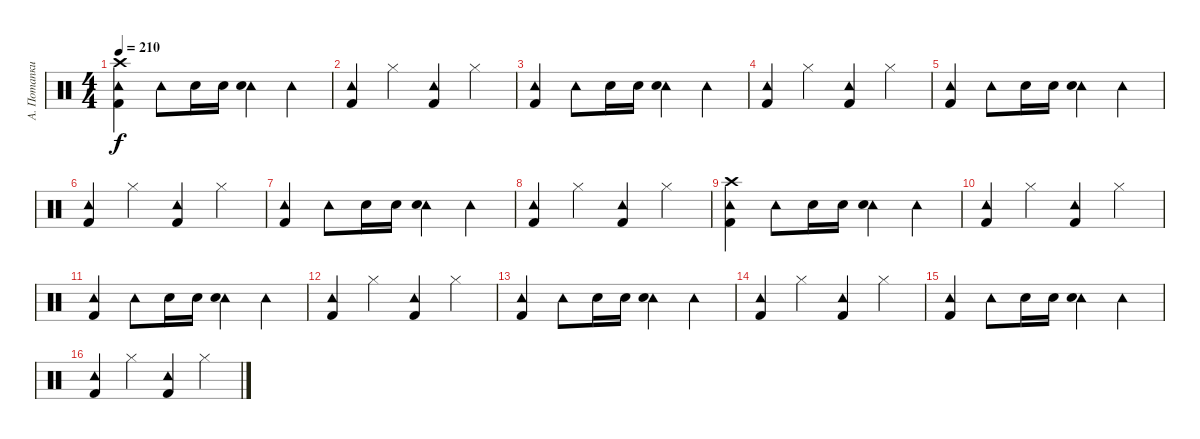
\track ("А. Потапкин" "А. Потапки") {instrument percussion}
\staff {score}
\articulation defaults
\ts (4 4)
\tempo 210
\clef neutral
\ks c
("Crash high (hit)" "Tambourine (hit)" "Kick (hit) 2").4{dy f} "Tambourine (hit)".8 "Electric Snare (hit)".16 "Electric Snare (hit)".16 ("Tambourine (hit)" "Electric Snare (hit)").4 "Tambourine (hit)".4 |
("Tambourine (hit)" "Kick (hit) 2").4 "Hi-Hat (closed)".4 ("Tambourine (hit)" "Kick (hit) 2").4 "Hi-Hat (closed)".4 |
("Tambourine (hit)" "Kick (hit) 2").4 "Tambourine (hit)".8 "Electric Snare (hit)".16 "Electric Snare (hit)".16 ("Tambourine (hit)" "Electric Snare (hit)").4 "Tambourine (hit)".4 |
("Tambourine (hit)" "Kick (hit) 2").4 "Hi-Hat (closed)".4 ("Tambourine (hit)" "Kick (hit) 2").4 "Hi-Hat (closed)".4 |
("Tambourine (hit)" "Kick (hit) 2").4 "Tambourine (hit)".8 "Electric Snare (hit)".16 "Electric Snare (hit)".16 ("Tambourine (hit)" "Electric Snare (hit)").4 "Tambourine (hit)".4 |
("Tambourine (hit)" "Kick (hit) 2").4 "Hi-Hat (closed)".4 ("Tambourine (hit)" "Kick (hit) 2").4 "Hi-Hat (closed)".4 |
("Tambourine (hit)" "Kick (hit) 2").4 "Tambourine (hit)".8 "Electric Snare (hit)".16 "Electric Snare (hit)".16 ("Tambourine (hit)" "Electric Snare (hit)").4 "Tambourine (hit)".4 |
("Tambourine (hit)" "Kick (hit) 2").4 "Hi-Hat (closed)".4 ("Tambourine (hit)" "Kick (hit) 2").4 "Hi-Hat (closed)".4 |
("Crash high (hit)" "Tambourine (hit)" "Kick (hit) 2").4 "Tambourine (hit)".8 "Electric Snare (hit)".16 "Electric Snare (hit)".16 ("Tambourine (hit)" "Electric Snare (hit)").4 "Tambourine (hit)".4 |
("Tambourine (hit)" "Kick (hit) 2").4 "Hi-Hat (closed)".4 ("Tambourine (hit)" "Kick (hit) 2").4 "Hi-Hat (closed)".4 |
("Tambourine (hit)" "Kick (hit) 2").4 "Tambourine (hit)".8 "Electric Snare (hit)".16 "Electric Snare (hit)".16 ("Tambourine (hit)" "Electric Snare (hit)").4 "Tambourine (hit)".4 |
("Tambourine (hit)" "Kick (hit) 2").4 "Hi-Hat (closed)".4 ("Tambourine (hit)" "Kick (hit) 2").4 "Hi-Hat (closed)".4 |
("Tambourine (hit)" "Kick (hit) 2").4 "Tambourine (hit)".8 "Electric Snare (hit)".16 "Electric Snare (hit)".16 ("Tambourine (hit)" "Electric Snare (hit)").4 "Tambourine (hit)".4 |
("Tambourine (hit)" "Kick (hit) 2").4 "Hi-Hat (closed)".4 ("Tambourine (hit)" "Kick (hit) 2").4 "Hi-Hat (closed)".4 |
("Tambourine (hit)" "Kick (hit) 2").4 "Tambourine (hit)".8 "Electric Snare (hit)".16 "Electric Snare (hit)".16 ("Tambourine (hit)" "Electric Snare (hit)").4 "Tambourine (hit)".4 |
("Tambourine (hit)" "Kick (hit) 2").4 "Hi-Hat (closed)".4 ("Tambourine (hit)" "Kick (hit) 2").4 "Hi-Hat (closed)".4
